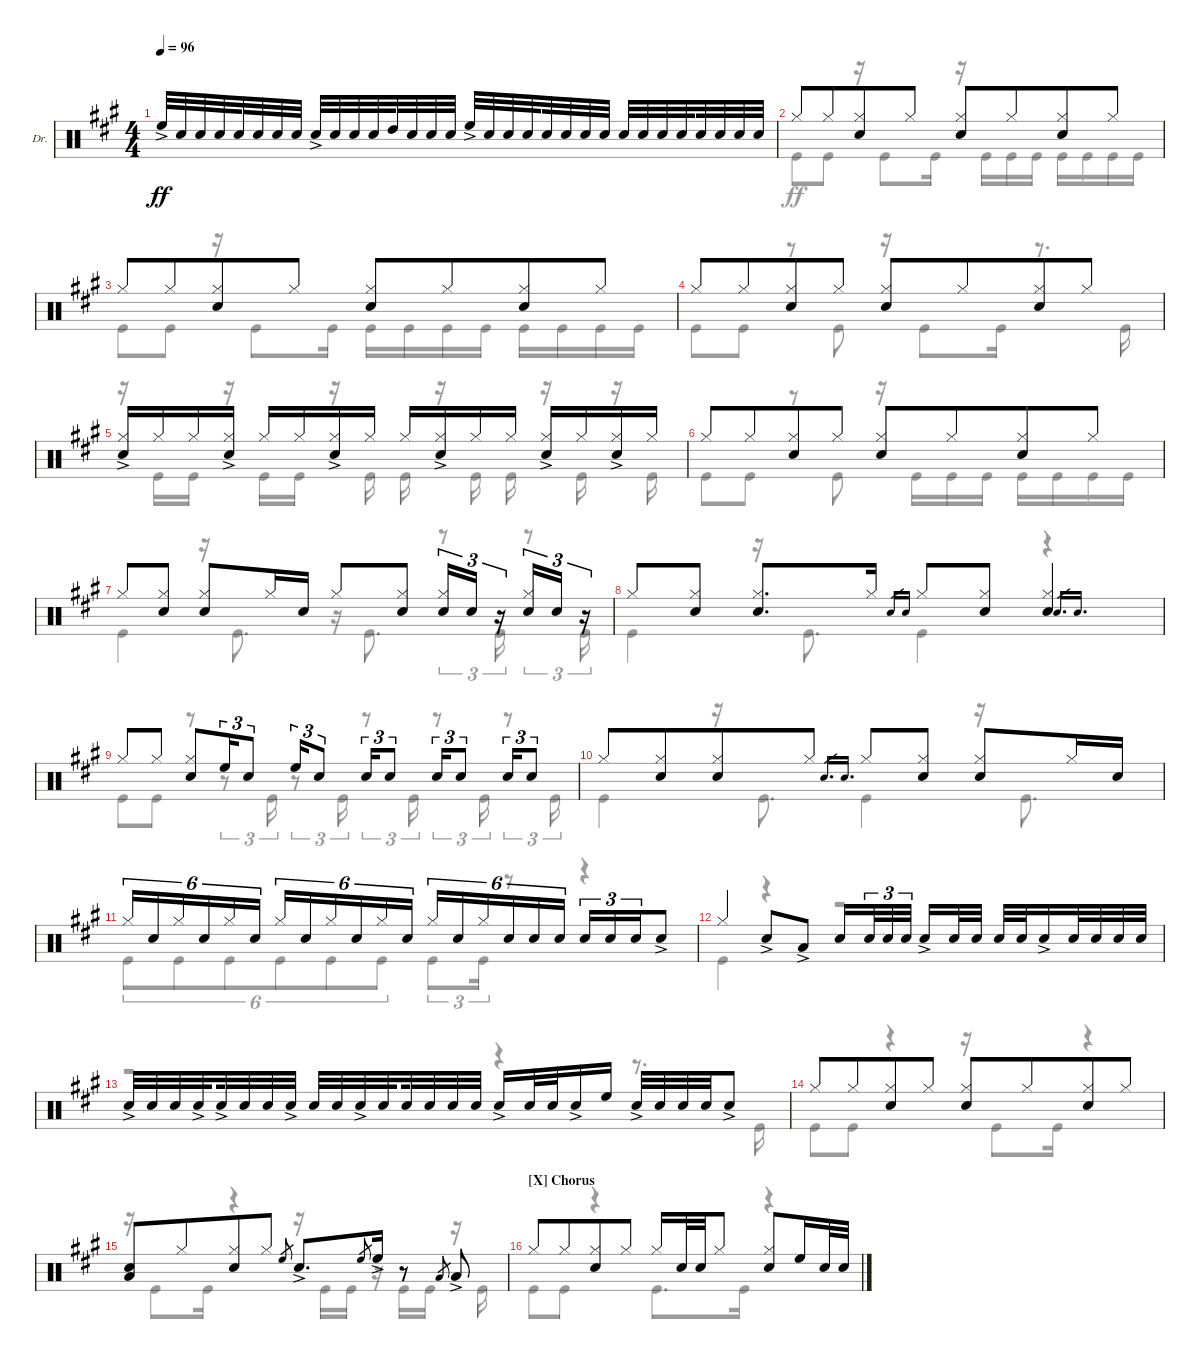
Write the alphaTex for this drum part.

\defaultSystemsLayout 4
\bracketExtendMode groupsimilarinstruments
\firstSystemTrackNameOrientation horizontal
\otherSystemsTrackNameOrientation horizontal
\track ("Drums" "Dr.") {instrument percussion}
\staff {score}
\articulation defaults
\voice
\ts (4 4)
\tempo 96
\clef neutral
\ks a "High Floor Tom (hit)"{ac}.32{dy ff beam invert} "Snare (hit) 2".32 "Snare (hit) 2".32 "Snare (hit) 2".32{beam splitsecondary} "Snare (hit) 2".32 "Snare (hit) 2".32 "Snare (hit) 2".32 "Snare (hit) 2".32 "Snare (hit) 2"{ac}.32{beam invert} "Snare (hit) 2".32 "Snare (hit) 2".32 "Snare (hit) 2".32{beam splitsecondary} "High Tom (hit)".32 "Snare (hit) 2".32 "Snare (hit) 2".32 "Snare (hit) 2".32 "High Floor Tom (hit)"{ac}.32{beam invert} "Snare (hit) 2".32 "Snare (hit) 2".32 "Snare (hit) 2".32{beam splitsecondary} "Snare (hit) 2".32 "Snare (hit) 2".32 "Snare (hit) 2".32 "Snare (hit) 2".32 "Snare (hit) 2".32{beam invert} "Snare (hit) 2".32 "Snare (hit) 2".32 "Snare (hit) 2".32{beam splitsecondary} "Snare (hit) 2".32 "Snare (hit) 2".32 "Snare (hit) 2".32 "Snare (hit) 2".32
|
"Hi-Hat (closed)".8 "Hi-Hat (closed)".8{beam merge} ("Hi-Hat (closed)" "Snare (hit) 2").8 "Hi-Hat (closed)".8 ("Hi-Hat (closed)" "Snare (hit) 2").8 "Hi-Hat (closed)".8{beam merge} ("Hi-Hat (closed)" "Snare (hit) 2").8 "Hi-Hat (closed)".8 |
"Hi-Hat (closed)".8 "Hi-Hat (closed)".8{beam merge} ("Hi-Hat (closed)" "Snare (hit) 2").8 "Hi-Hat (closed)".8 ("Hi-Hat (closed)" "Snare (hit) 2").8 "Hi-Hat (closed)".8{beam merge} ("Hi-Hat (closed)" "Snare (hit) 2").8 "Hi-Hat (closed)".8 |
"Hi-Hat (closed)".8 "Hi-Hat (closed)".8{beam merge} ("Hi-Hat (closed)" "Snare (hit) 2").8 "Hi-Hat (closed)".8 ("Hi-Hat (closed)" "Snare (hit) 2").8 "Hi-Hat (closed)".8{beam merge} ("Hi-Hat (closed)" "Snare (hit) 2").8 "Hi-Hat (closed)".8 |
("Snare (hit) 2"{ac} "Hi-Hat (closed)").16 "Hi-Hat (closed)".16 "Hi-Hat (closed)".16 ("Hi-Hat (closed)" "Snare (hit) 2"{ac}).16 "Hi-Hat (closed)".16 "Hi-Hat (closed)".16 ("Hi-Hat (closed)" "Snare (hit) 2"{ac}).16 "Hi-Hat (closed)".16 "Hi-Hat (closed)".16 ("Hi-Hat (closed)" "Snare (hit) 2"{ac}).16 "Hi-Hat (closed)".16 "Hi-Hat (closed)".16 ("Hi-Hat (closed)" "Snare (hit) 2"{ac}).16 "Hi-Hat (closed)".16 ("Hi-Hat (closed)" "Snare (hit) 2"{ac}).16 "Hi-Hat (closed)".16 |
"Hi-Hat (closed)".8 "Hi-Hat (closed)".8{beam merge} ("Hi-Hat (closed)" "Snare (hit) 2").8 "Hi-Hat (closed)".8 ("Hi-Hat (closed)" "Snare (hit) 2").8 "Hi-Hat (closed)".8{beam merge} ("Hi-Hat (closed)" "Snare (hit) 2").8 "Hi-Hat (closed)".8 |
"Hi-Hat (closed)".8{beam merge} ("Hi-Hat (closed)" "Snare (hit) 2").8 ("Hi-Hat (closed)" "Snare (hit) 2").8 "Hi-Hat (closed)".16 "Snare (hit) 2".16 "Hi-Hat (closed)".8{beam merge} ("Hi-Hat (closed)" "Snare (hit) 2").8 ("Hi-Hat (closed)" "Snare (hit) 2").16{tu (3 2)} "Snare (hit) 2".16{tu (3 2)} r.16{tu (3 2)} ("Hi-Hat (closed)" "Snare (hit) 2").16{tu (3 2)} "Snare (hit) 2".16{tu (3 2)} r.16{tu (3 2)} |
"Hi-Hat (closed)".8 ("Hi-Hat (closed)" "Snare (hit) 2").8 ("Hi-Hat (closed)" "Snare (hit) 2").8{d} "Hi-Hat (closed)".16 "Snare (hit) 2".16{gr} "Snare (hit) 2".16{gr} "Hi-Hat (closed)".8 ("Hi-Hat (closed)" "Snare (hit) 2").8 ("Hi-Hat (closed)" "Snare (hit) 2").4 "Snare (hit) 2".16{d gr} "Snare (hit) 2".16{d gr} |
"Hi-Hat (closed)".8 "Hi-Hat (closed)".8 ("Hi-Hat (closed)" "Snare (hit) 2").8{beam merge} "High Floor Tom (hit)".16{tu (3 2)} "Snare (hit) 2".8{tu (3 2)} "High Floor Tom (hit)".16{tu (3 2)} "Snare (hit) 2".8{tu (3 2)} "Snare (hit) 2".16{tu (3 2)} "Snare (hit) 2".8{tu (3 2)} "Snare (hit) 2".16{tu (3 2)} "Snare (hit) 2".8{tu (3 2)} "Snare (hit) 2".16{tu (3 2)} "Snare (hit) 2".8{tu (3 2)} |
"Hi-Hat (closed)".8 ("Hi-Hat (closed)" "Snare (hit) 2").8{beam merge} ("Hi-Hat (closed)" "Snare (hit) 2").8 "Hi-Hat (closed)".8 "Snare (hit) 2".16{d gr} "Snare (hit) 2".16{d gr} "Hi-Hat (closed)".8 ("Hi-Hat (closed)" "Snare (hit) 2").8 ("Hi-Hat (closed)" "Snare (hit) 2").8 "Hi-Hat (closed)".16 "Snare (hit) 2".16 |
"Hi-Hat (closed)".16{tu (6 4)} "Snare (hit) 2".16{tu (6 4)} "Hi-Hat (closed)".16{tu (6 4)} "Snare (hit) 2".16{tu (6 4)} "Hi-Hat (closed)".16{tu (6 4)} "Snare (hit) 2".16{tu (6 4)} "Hi-Hat (closed)".16{tu (6 4)} "Snare (hit) 2".16{tu (6 4)} "Hi-Hat (closed)".16{tu (6 4)} "Snare (hit) 2".16{tu (6 4)} "Hi-Hat (closed)".16{tu (6 4)} "Snare (hit) 2".16{tu (6 4)} "Hi-Hat (closed)".16{tu (6 4)} "Snare (hit) 2".16{tu (6 4)} "Hi-Hat (closed)".16{tu (6 4)} "Snare (hit) 2".16{tu (6 4)} "Snare (hit) 2".16{tu (6 4)} "Snare (hit) 2".16{tu (6 4)} "Snare (hit) 2".16{tu (3 2)} "Snare (hit) 2".16{tu (3 2)} "Snare (hit) 2".16{tu (3 2) beam merge} "Snare (hit) 2"{ac}.8 |
"Hi-Hat (closed)".4 "Snare (hit) 2"{ac}.8 "Low Tom (hit)"{ac}.8 "Snare (hit) 2".16{beam merge} "Snare (hit) 2".32{tu (3 2)} "Snare (hit) 2".32{tu (3 2)} "Snare (hit) 2".32{tu (3 2)} "Snare (hit) 2"{ac}.16 "Snare (hit) 2".32 "Snare (hit) 2".32 "Snare (hit) 2".32 "Snare (hit) 2".32 "Snare (hit) 2"{ac}.16 "Snare (hit) 2".32 "Snare (hit) 2".32 "Snare (hit) 2".32 "Snare (hit) 2".32 |
"Snare (hit) 2"{ac}.32 "Snare (hit) 2".32 "Snare (hit) 2".32 "Snare (hit) 2"{ac}.32{beam splitsecondary} "Snare (hit) 2"{ac}.32 "Snare (hit) 2".32 "Snare (hit) 2".32 "Snare (hit) 2"{ac}.32 "Snare (hit) 2".32 "Snare (hit) 2".32 "Snare (hit) 2"{ac}.32 "Snare (hit) 2".32{beam splitsecondary} "Snare (hit) 2".32 "Snare (hit) 2".32 "Snare (hit) 2".32 "Snare (hit) 2".32 "Snare (hit) 2"{ac}.16 "Snare (hit) 2".32 "Snare (hit) 2".32 "Snare (hit) 2"{ac}.16 "High Floor Tom (hit)".16 "Snare (hit) 2"{ac}.32 "Snare (hit) 2".32 "Snare (hit) 2".32 "Snare (hit) 2".32 "Snare (hit) 2"{ac}.8 |
"Hi-Hat (closed)".8 "Hi-Hat (closed)".8{beam merge} ("Hi-Hat (closed)" "Snare (hit) 2").8 "Hi-Hat (closed)".8 ("Hi-Hat (closed)" "Snare (hit) 2").8 "Hi-Hat (closed)".8{beam merge} ("Hi-Hat (closed)" "Snare (hit) 2").8 "Hi-Hat (closed)".8 |
("Snare (hit) 2" "Low Tom (hit)").8 "Hi-Hat (closed)".8{beam merge} ("Hi-Hat (closed)" "Snare (hit) 2").8 "Hi-Hat (closed)".8 "High Floor Tom (hit)".8{gr} "Snare (hit) 2"{ac}.8{d} "High Floor Tom (hit)".8{gr} "High Floor Tom (hit)"{ac}.16 r.8 "Low Tom (hit)".8{gr} "Low Tom (hit)"{ac}.8 |
\section ("X" "Chorus")
"Hi-Hat (closed)".8 "Hi-Hat (closed)".8{beam merge} ("Hi-Hat (closed)" "Snare (hit) 2").8 "Hi-Hat (closed)".8 "Hi-Hat (closed)".16 "Snare (hit) 2".32 "Snare (hit) 2".32 "Hi-Hat (closed)".8 ("Hi-Hat (closed)" "Snare (hit) 2").8 "High Floor Tom (hit)".16 "Snare (hit) 2".32 "Snare (hit) 2".32
\voice
\clef neutral
\ottava regular
\simile none
\ks a
|
"Kick (hit)".8 "Kick (hit)".8 r.16 "Kick (hit)".8 "Kick (hit)".16 r.16 "Kick (hit)".16 "Kick (hit)".16 "Kick (hit)".16 "Kick (hit)".16 "Kick (hit)".16 "Kick (hit)".16 "Kick (hit)".16 |
"Kick (hit)".8 "Kick (hit)".8 r.16 "Kick (hit)".8 "Kick (hit)".16 "Kick (hit)".16 "Kick (hit)".16 "Kick (hit)".16 "Kick (hit)".16 "Kick (hit)".16 "Kick (hit)".16 "Kick (hit)".16 "Kick (hit)".16 |
"Kick (hit)".8 "Kick (hit)".8 r.8 "Kick (hit)".8 r.16 "Kick (hit)".8 "Kick (hit)".16 r.8{d} "Kick (hit)".16 |
r.16 "Kick (hit)".16 "Kick (hit)".16 r.16 "Kick (hit)".16 "Kick (hit)".16{beam split} r.16{beam split} "Kick (hit)".16{beam split} "Kick (hit)".16{beam split} r.16{beam split} "Kick (hit)".16{beam split} "Kick (hit)".16{beam split} r.16{beam split} "Kick (hit)".16{beam split} r.16{beam split} "Kick (hit)".16{beam split} |
"Kick (hit)".8 "Kick (hit)".8 r.8 "Kick (hit)".8 r.16 "Kick (hit)".16 "Kick (hit)".16 "Kick (hit)".16 "Kick (hit)".16 "Kick (hit)".16 "Kick (hit)".16 "Kick (hit)".16 |
"Kick (hit)".4 r.16 "Kick (hit)".8{d} r.16 "Kick (hit)".8{d} r.8{tu (3 2)} "Kick (hit)".16{tu (3 2)} r.8{tu (3 2)} "Kick (hit)".16{tu (3 2)} |
"Kick (hit)".4 r.16 "Kick (hit)".8{d} "Kick (hit)".4 r.4 |
"Kick (hit)".8 "Kick (hit)".8 r.8 r.8{tu (3 2)} "Kick (hit)".16{tu (3 2)} r.8{tu (3 2)} "Kick (hit)".16{tu (3 2)} r.8{tu (3 2)} "Kick (hit)".16{tu (3 2)} r.8{tu (3 2)} "Kick (hit)".16{tu (3 2)} r.8{tu (3 2)} "Kick (hit)".16{tu (3 2)} |
"Kick (hit)".4 r.16 "Kick (hit)".8{d} "Kick (hit)".4 r.16 "Kick (hit)".8{d} |
"Kick (hit)".8{tu (6 4)} "Kick (hit)".8{tu (6 4)} "Kick (hit)".8{tu (6 4)} "Kick (hit)".8{tu (6 4)} "Kick (hit)".8{tu (6 4)} "Kick (hit)".8{tu (6 4)} "Kick (hit)".8{tu (3 2)} "Kick (hit)".16{tu (3 2)} r.8 r.4 |
"Kick (hit)".4 r.4 r.2 |
r.2 r.4 r.8{d} "Kick (hit)".16 |
"Kick (hit)".8 "Kick (hit)".8 r.4 r.16 "Kick (hit)".8 "Kick (hit)".16 r.4 |
r.16 "Kick (hit)".8 "Kick (hit)".16 r.4 r.16 "Kick (hit)".16 "Kick (hit)".16 r.16 "Kick (hit)".16 "Kick (hit)".16{beam split} r.16{beam split} "Kick (hit)".16{beam split} |
"Kick (hit)".8 "Kick (hit)".8 r.4 "Kick (hit)".8{d} "Kick (hit)".16 r.4
